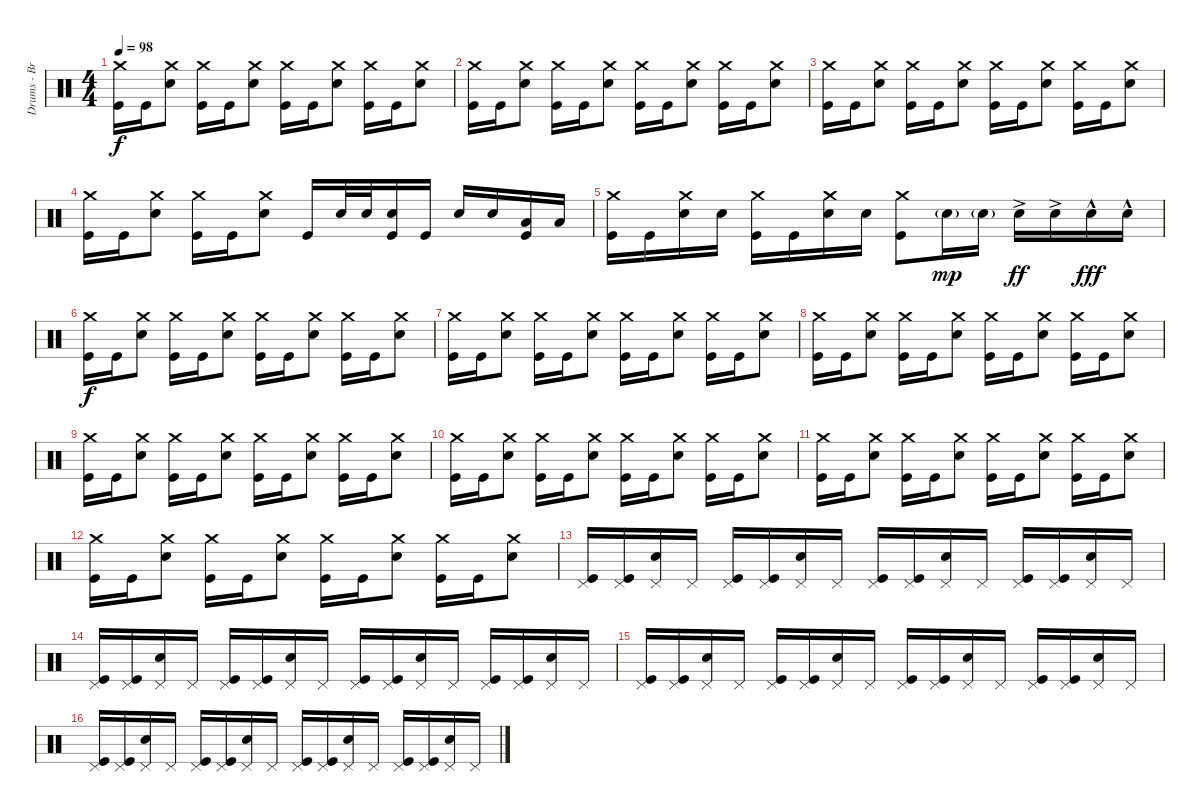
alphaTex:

\track ("Drums - Brandon" "Drums - Br") {instrument percussion}
\staff {score}
\articulation defaults
\ts (4 4)
\tempo 98
\clef neutral
\ks c
("Crash medium (hit)" "Kick (hit)").16{dy f} "Kick (hit)".16 ("Crash medium (hit)" "Snare (hit) 2").8 ("Crash medium (hit)" "Kick (hit)").16 "Kick (hit)".16 ("Crash medium (hit)" "Snare (hit) 2").8 ("Crash medium (hit)" "Kick (hit)").16 "Kick (hit)".16 ("Crash medium (hit)" "Snare (hit) 2").8 ("Crash medium (hit)" "Kick (hit)").16 "Kick (hit)".16 ("Crash medium (hit)" "Snare (hit) 2").8 |
("Crash medium (hit)" "Kick (hit)").16 "Kick (hit)".16 ("Crash medium (hit)" "Snare (hit) 2").8 ("Crash medium (hit)" "Kick (hit)").16 "Kick (hit)".16 ("Crash medium (hit)" "Snare (hit) 2").8 ("Crash medium (hit)" "Kick (hit)").16 "Kick (hit)".16 ("Crash medium (hit)" "Snare (hit) 2").8 ("Crash medium (hit)" "Kick (hit)").16 "Kick (hit)".16 ("Crash medium (hit)" "Snare (hit) 2").8 |
("Crash medium (hit)" "Kick (hit)").16 "Kick (hit)".16 ("Crash medium (hit)" "Snare (hit) 2").8 ("Crash medium (hit)" "Kick (hit)").16 "Kick (hit)".16 ("Crash medium (hit)" "Snare (hit) 2").8 ("Crash medium (hit)" "Kick (hit)").16 "Kick (hit)".16 ("Crash medium (hit)" "Snare (hit) 2").8 ("Crash medium (hit)" "Kick (hit)").16 "Kick (hit)".16 ("Crash medium (hit)" "Snare (hit) 2").8 |
("Crash medium (hit)" "Kick (hit)").16 "Kick (hit)".16 ("Crash medium (hit)" "Snare (hit) 2").8 ("Crash medium (hit)" "Kick (hit)").16 "Kick (hit)".16 ("Crash medium (hit)" "Snare (hit) 2").8 "Kick (hit)".16 "Snare (hit) 2".32 "Snare (hit) 2".32 ("Snare (hit) 2" "Kick (hit)").16 "Kick (hit)".16 "Snare (hit) 2".16 "Snare (hit) 2".16 ("Low Tom (hit)" "Kick (hit)").16 "Low Floor Tom (hit)".16 |
("Crash medium (hit)" "Kick (hit)").16 "Kick (hit)".16 ("Crash medium (hit)" "Electric Snare (hit)").16 "Electric Snare (hit)".16 ("Crash medium (hit)" "Kick (hit)").16 "Kick (hit)".16 ("Crash medium (hit)" "Snare (hit) 2").16 "Snare (hit) 2".16 ("Crash medium (hit)" "Kick (hit)").8 "Electric Snare (hit)"{g}.16{dy mp} "Electric Snare (hit)"{g}.16 "Electric Snare (hit)"{ac}.16{dy ff} "Electric Snare (hit)"{ac}.16 "Electric Snare (hit)"{hac}.16{dy fff} "Electric Snare (hit)"{hac}.16 |
("Crash medium (hit)" "Kick (hit)").16{dy f} "Kick (hit)".16 ("Crash medium (hit)" "Snare (hit) 2").8 ("Crash medium (hit)" "Kick (hit)").16 "Kick (hit)".16 ("Crash medium (hit)" "Snare (hit) 2").8 ("Crash medium (hit)" "Kick (hit)").16 "Kick (hit)".16 ("Crash medium (hit)" "Snare (hit) 2").8 ("Crash medium (hit)" "Kick (hit)").16 "Kick (hit)".16 ("Crash medium (hit)" "Snare (hit) 2").8 |
("Crash medium (hit)" "Kick (hit)").16 "Kick (hit)".16 ("Crash medium (hit)" "Snare (hit) 2").8 ("Crash medium (hit)" "Kick (hit)").16 "Kick (hit)".16 ("Crash medium (hit)" "Snare (hit) 2").8 ("Crash medium (hit)" "Kick (hit)").16 "Kick (hit)".16 ("Crash medium (hit)" "Snare (hit) 2").8 ("Crash medium (hit)" "Kick (hit)").16 "Kick (hit)".16 ("Crash medium (hit)" "Snare (hit) 2").8 |
("Crash medium (hit)" "Kick (hit)").16 "Kick (hit)".16 ("Crash medium (hit)" "Snare (hit) 2").8 ("Crash medium (hit)" "Kick (hit)").16 "Kick (hit)".16 ("Crash medium (hit)" "Snare (hit) 2").8 ("Crash medium (hit)" "Kick (hit)").16 "Kick (hit)".16 ("Crash medium (hit)" "Snare (hit) 2").8 ("Crash medium (hit)" "Kick (hit)").16 "Kick (hit)".16 ("Crash medium (hit)" "Snare (hit) 2").8 |
("Crash medium (hit)" "Kick (hit)").16 "Kick (hit)".16 ("Crash medium (hit)" "Snare (hit) 2").8 ("Crash medium (hit)" "Kick (hit)").16 "Kick (hit)".16 ("Crash medium (hit)" "Snare (hit) 2").8 ("Crash medium (hit)" "Kick (hit)").16 "Kick (hit)".16 ("Crash medium (hit)" "Snare (hit) 2").8 ("Crash medium (hit)" "Kick (hit)").16 "Kick (hit)".16 ("Crash medium (hit)" "Snare (hit) 2").8 |
("Crash medium (hit)" "Kick (hit)").16 "Kick (hit)".16 ("Crash medium (hit)" "Snare (hit) 2").8 ("Crash medium (hit)" "Kick (hit)").16 "Kick (hit)".16 ("Crash medium (hit)" "Snare (hit) 2").8 ("Crash medium (hit)" "Kick (hit)").16 "Kick (hit)".16 ("Crash medium (hit)" "Snare (hit) 2").8 ("Crash medium (hit)" "Kick (hit)").16 "Kick (hit)".16 ("Crash medium (hit)" "Snare (hit) 2").8 |
("Crash medium (hit)" "Kick (hit)").16 "Kick (hit)".16 ("Crash medium (hit)" "Snare (hit) 2").8 ("Crash medium (hit)" "Kick (hit)").16 "Kick (hit)".16 ("Crash medium (hit)" "Snare (hit) 2").8 ("Crash medium (hit)" "Kick (hit)").16 "Kick (hit)".16 ("Crash medium (hit)" "Snare (hit) 2").8 ("Crash medium (hit)" "Kick (hit)").16 "Kick (hit)".16 ("Crash medium (hit)" "Snare (hit) 2").8 |
("Crash medium (hit)" "Kick (hit)").16 "Kick (hit)".16 ("Crash medium (hit)" "Snare (hit) 2").8 ("Crash medium (hit)" "Kick (hit)").16 "Kick (hit)".16 ("Crash medium (hit)" "Snare (hit) 2").8 ("Crash medium (hit)" "Kick (hit)").16 "Kick (hit)".16 ("Crash medium (hit)" "Snare (hit) 2").8 ("Crash medium (hit)" "Kick (hit)").16 "Kick (hit)".16 ("Crash medium (hit)" "Snare (hit) 2").8 |
("Pedal Hi-Hat (hit)" "Kick (hit)").16 ("Pedal Hi-Hat (hit)" "Kick (hit)").16 ("Pedal Hi-Hat (hit)" "Electric Snare (hit)").16 "Pedal Hi-Hat (hit)".16 ("Pedal Hi-Hat (hit)" "Kick (hit)").16 ("Pedal Hi-Hat (hit)" "Kick (hit)").16 ("Pedal Hi-Hat (hit)" "Electric Snare (hit)").16 "Pedal Hi-Hat (hit)".16 ("Pedal Hi-Hat (hit)" "Kick (hit)").16 ("Pedal Hi-Hat (hit)" "Kick (hit)").16 ("Pedal Hi-Hat (hit)" "Electric Snare (hit)").16 "Pedal Hi-Hat (hit)".16 ("Pedal Hi-Hat (hit)" "Kick (hit)").16 ("Pedal Hi-Hat (hit)" "Kick (hit)").16 ("Pedal Hi-Hat (hit)" "Electric Snare (hit)").16 "Pedal Hi-Hat (hit)".16 |
("Pedal Hi-Hat (hit)" "Kick (hit)").16 ("Pedal Hi-Hat (hit)" "Kick (hit)").16 ("Pedal Hi-Hat (hit)" "Electric Snare (hit)").16 "Pedal Hi-Hat (hit)".16 ("Pedal Hi-Hat (hit)" "Kick (hit)").16 ("Pedal Hi-Hat (hit)" "Kick (hit)").16 ("Pedal Hi-Hat (hit)" "Electric Snare (hit)").16 "Pedal Hi-Hat (hit)".16 ("Pedal Hi-Hat (hit)" "Kick (hit)").16 ("Pedal Hi-Hat (hit)" "Kick (hit)").16 ("Pedal Hi-Hat (hit)" "Electric Snare (hit)").16 "Pedal Hi-Hat (hit)".16 ("Pedal Hi-Hat (hit)" "Kick (hit)").16 ("Pedal Hi-Hat (hit)" "Kick (hit)").16 ("Pedal Hi-Hat (hit)" "Electric Snare (hit)").16 "Pedal Hi-Hat (hit)".16 |
("Pedal Hi-Hat (hit)" "Kick (hit)").16 ("Pedal Hi-Hat (hit)" "Kick (hit)").16 ("Pedal Hi-Hat (hit)" "Electric Snare (hit)").16 "Pedal Hi-Hat (hit)".16 ("Pedal Hi-Hat (hit)" "Kick (hit)").16 ("Pedal Hi-Hat (hit)" "Kick (hit)").16 ("Pedal Hi-Hat (hit)" "Electric Snare (hit)").16 "Pedal Hi-Hat (hit)".16 ("Pedal Hi-Hat (hit)" "Kick (hit)").16 ("Pedal Hi-Hat (hit)" "Kick (hit)").16 ("Pedal Hi-Hat (hit)" "Electric Snare (hit)").16 "Pedal Hi-Hat (hit)".16 ("Pedal Hi-Hat (hit)" "Kick (hit)").16 ("Pedal Hi-Hat (hit)" "Kick (hit)").16 ("Pedal Hi-Hat (hit)" "Electric Snare (hit)").16 "Pedal Hi-Hat (hit)".16 |
("Pedal Hi-Hat (hit)" "Kick (hit)").16 ("Pedal Hi-Hat (hit)" "Kick (hit)").16 ("Pedal Hi-Hat (hit)" "Electric Snare (hit)").16 "Pedal Hi-Hat (hit)".16 ("Pedal Hi-Hat (hit)" "Kick (hit)").16 ("Pedal Hi-Hat (hit)" "Kick (hit)").16 ("Pedal Hi-Hat (hit)" "Electric Snare (hit)").16 "Pedal Hi-Hat (hit)".16 ("Pedal Hi-Hat (hit)" "Kick (hit)").16 ("Pedal Hi-Hat (hit)" "Kick (hit)").16 ("Pedal Hi-Hat (hit)" "Electric Snare (hit)").16 "Pedal Hi-Hat (hit)".16 ("Pedal Hi-Hat (hit)" "Kick (hit)").16 ("Pedal Hi-Hat (hit)" "Kick (hit)").16 ("Pedal Hi-Hat (hit)" "Electric Snare (hit)").16 "Pedal Hi-Hat (hit)".16
